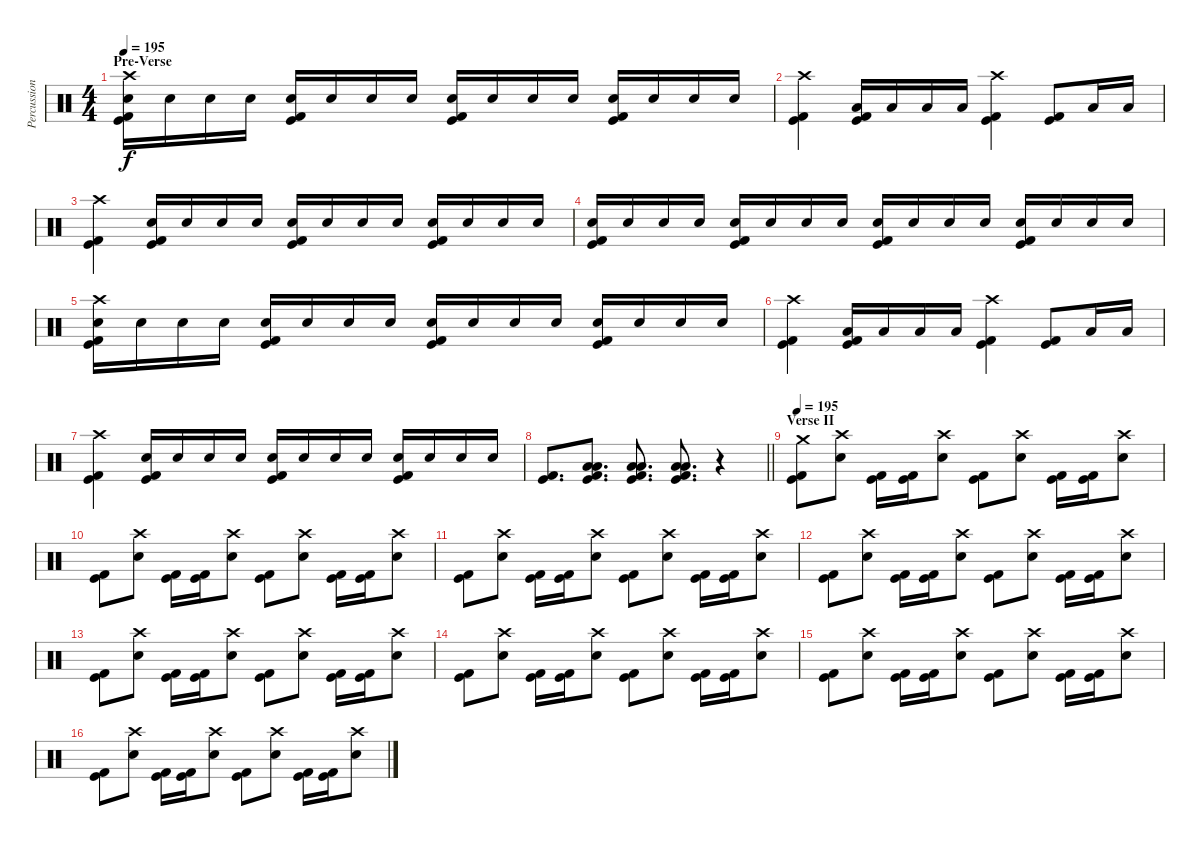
\track ("Percussion" "Percussion") {instrument percussion}
\staff {score}
\articulation defaults
\ts (4 4)
\section ("" "Pre-Verse")
\tempo 195
\clef neutral
\ks c
("Crash high (hit)" "Electric Snare (hit)" "Kick (hit)" "Kick (hit) 2").16{dy f} "Electric Snare (hit)".16 "Electric Snare (hit)".16 "Electric Snare (hit)".16 ("Electric Snare (hit)" "Kick (hit)" "Kick (hit) 2").16 "Electric Snare (hit)".16 "Electric Snare (hit)".16 "Electric Snare (hit)".16 ("Electric Snare (hit)" "Kick (hit)" "Kick (hit) 2").16 "Electric Snare (hit)".16 "Electric Snare (hit)".16 "Electric Snare (hit)".16 ("Electric Snare (hit)" "Kick (hit)" "Kick (hit) 2").16 "Electric Snare (hit)".16 "Electric Snare (hit)".16 "Electric Snare (hit)".16 |
("Crash high (hit)" "Kick (hit)" "Kick (hit) 2").4 ("Low Tom (hit)" "Kick (hit)" "Kick (hit) 2").16 "Low Tom (hit)".16 "Low Tom (hit)".16 "Low Tom (hit)".16 ("Crash high (hit)" "Kick (hit)" "Kick (hit) 2").4 ("Kick (hit)" "Kick (hit) 2").8 "Low Tom (hit)".16 "Low Tom (hit)".16 |
("Crash high (hit)" "Kick (hit)" "Kick (hit) 2").4 ("Electric Snare (hit)" "Kick (hit)" "Kick (hit) 2").16 "Electric Snare (hit)".16 "Electric Snare (hit)".16 "Electric Snare (hit)".16 ("Electric Snare (hit)" "Kick (hit)" "Kick (hit) 2").16 "Electric Snare (hit)".16 "Electric Snare (hit)".16 "Electric Snare (hit)".16 ("Electric Snare (hit)" "Kick (hit)" "Kick (hit) 2").16 "Electric Snare (hit)".16 "Electric Snare (hit)".16 "Electric Snare (hit)".16 |
("Electric Snare (hit)" "Kick (hit)" "Kick (hit) 2").16 "Electric Snare (hit)".16 "Electric Snare (hit)".16 "Electric Snare (hit)".16 ("Electric Snare (hit)" "Kick (hit)" "Kick (hit) 2").16 "Electric Snare (hit)".16 "Electric Snare (hit)".16 "Electric Snare (hit)".16 ("Electric Snare (hit)" "Kick (hit)" "Kick (hit) 2").16 "Electric Snare (hit)".16 "Electric Snare (hit)".16 "Electric Snare (hit)".16 ("Electric Snare (hit)" "Kick (hit)" "Kick (hit) 2").16 "Electric Snare (hit)".16 "Electric Snare (hit)".16 "Electric Snare (hit)".16 |
("Crash high (hit)" "Electric Snare (hit)" "Kick (hit)" "Kick (hit) 2").16 "Electric Snare (hit)".16 "Electric Snare (hit)".16 "Electric Snare (hit)".16 ("Electric Snare (hit)" "Kick (hit)" "Kick (hit) 2").16 "Electric Snare (hit)".16 "Electric Snare (hit)".16 "Electric Snare (hit)".16 ("Electric Snare (hit)" "Kick (hit)" "Kick (hit) 2").16 "Electric Snare (hit)".16 "Electric Snare (hit)".16 "Electric Snare (hit)".16 ("Electric Snare (hit)" "Kick (hit)" "Kick (hit) 2").16 "Electric Snare (hit)".16 "Electric Snare (hit)".16 "Electric Snare (hit)".16 |
("Crash high (hit)" "Kick (hit)" "Kick (hit) 2").4 ("Low Tom (hit)" "Kick (hit)" "Kick (hit) 2").16 "Low Tom (hit)".16 "Low Tom (hit)".16 "Low Tom (hit)".16 ("Crash high (hit)" "Kick (hit)" "Kick (hit) 2").4 ("Kick (hit)" "Kick (hit) 2").8 "Low Tom (hit)".16 "Low Tom (hit)".16 |
("Crash high (hit)" "Kick (hit)" "Kick (hit) 2").4 ("Electric Snare (hit)" "Kick (hit)" "Kick (hit) 2").16 "Electric Snare (hit)".16 "Electric Snare (hit)".16 "Electric Snare (hit)".16 ("Electric Snare (hit)" "Kick (hit)" "Kick (hit) 2").16 "Electric Snare (hit)".16 "Electric Snare (hit)".16 "Electric Snare (hit)".16 ("Electric Snare (hit)" "Kick (hit)" "Kick (hit) 2").16 "Electric Snare (hit)".16 "Electric Snare (hit)".16 "Electric Snare (hit)".16 |
\barLineRight lightlight
("Kick (hit)" "Kick (hit) 2").8{d} ("Low Tom (hit)" "Low Floor Tom (hit)" "Kick (hit)" "Kick (hit) 2").8{d} ("Low Tom (hit)" "Low Floor Tom (hit)" "Kick (hit)" "Kick (hit) 2").8{d} ("Low Tom (hit)" "Low Floor Tom (hit)" "Kick (hit)" "Kick (hit) 2").8{d} r.4 |
\section ("" "Verse II")
\tempo 197
\tempo 195
("Crash medium (hit)" "Kick (hit)" "Kick (hit) 2").8 ("Crash high (hit)" "Electric Snare (hit)").8 ("Kick (hit)" "Kick (hit) 2").16 ("Kick (hit)" "Kick (hit) 2").16 ("Crash high (hit)" "Electric Snare (hit)").8 ("Kick (hit)" "Kick (hit) 2").8 ("Crash high (hit)" "Electric Snare (hit)").8 ("Kick (hit)" "Kick (hit) 2").16 ("Kick (hit)" "Kick (hit) 2").16 ("Crash high (hit)" "Electric Snare (hit)").8 |
("Kick (hit)" "Kick (hit) 2").8 ("Crash high (hit)" "Electric Snare (hit)").8 ("Kick (hit)" "Kick (hit) 2").16 ("Kick (hit)" "Kick (hit) 2").16 ("Crash high (hit)" "Electric Snare (hit)").8 ("Kick (hit)" "Kick (hit) 2").8 ("Crash high (hit)" "Electric Snare (hit)").8 ("Kick (hit)" "Kick (hit) 2").16 ("Kick (hit)" "Kick (hit) 2").16 ("Crash high (hit)" "Electric Snare (hit)").8 |
("Kick (hit)" "Kick (hit) 2").8 ("Crash high (hit)" "Electric Snare (hit)").8 ("Kick (hit)" "Kick (hit) 2").16 ("Kick (hit)" "Kick (hit) 2").16 ("Crash high (hit)" "Electric Snare (hit)").8 ("Kick (hit)" "Kick (hit) 2").8 ("Crash high (hit)" "Electric Snare (hit)").8 ("Kick (hit)" "Kick (hit) 2").16 ("Kick (hit)" "Kick (hit) 2").16 ("Crash high (hit)" "Electric Snare (hit)").8 |
("Kick (hit)" "Kick (hit) 2").8 ("Crash high (hit)" "Electric Snare (hit)").8 ("Kick (hit)" "Kick (hit) 2").16 ("Kick (hit)" "Kick (hit) 2").16 ("Crash high (hit)" "Electric Snare (hit)").8 ("Kick (hit)" "Kick (hit) 2").8 ("Crash high (hit)" "Electric Snare (hit)").8 ("Kick (hit)" "Kick (hit) 2").16 ("Kick (hit)" "Kick (hit) 2").16 ("Crash high (hit)" "Electric Snare (hit)").8 |
("Kick (hit)" "Kick (hit) 2").8 ("Crash high (hit)" "Electric Snare (hit)").8 ("Kick (hit)" "Kick (hit) 2").16 ("Kick (hit)" "Kick (hit) 2").16 ("Crash high (hit)" "Electric Snare (hit)").8 ("Kick (hit)" "Kick (hit) 2").8 ("Crash high (hit)" "Electric Snare (hit)").8 ("Kick (hit)" "Kick (hit) 2").16 ("Kick (hit)" "Kick (hit) 2").16 ("Crash high (hit)" "Electric Snare (hit)").8 |
("Kick (hit)" "Kick (hit) 2").8 ("Crash high (hit)" "Electric Snare (hit)").8 ("Kick (hit)" "Kick (hit) 2").16 ("Kick (hit)" "Kick (hit) 2").16 ("Crash high (hit)" "Electric Snare (hit)").8 ("Kick (hit)" "Kick (hit) 2").8 ("Crash high (hit)" "Electric Snare (hit)").8 ("Kick (hit)" "Kick (hit) 2").16 ("Kick (hit)" "Kick (hit) 2").16 ("Crash high (hit)" "Electric Snare (hit)").8 |
("Kick (hit)" "Kick (hit) 2").8 ("Crash high (hit)" "Electric Snare (hit)").8 ("Kick (hit)" "Kick (hit) 2").16 ("Kick (hit)" "Kick (hit) 2").16 ("Crash high (hit)" "Electric Snare (hit)").8 ("Kick (hit)" "Kick (hit) 2").8 ("Crash high (hit)" "Electric Snare (hit)").8 ("Kick (hit)" "Kick (hit) 2").16 ("Kick (hit)" "Kick (hit) 2").16 ("Crash high (hit)" "Electric Snare (hit)").8 |
("Kick (hit)" "Kick (hit) 2").8 ("Crash high (hit)" "Electric Snare (hit)").8 ("Kick (hit)" "Kick (hit) 2").16 ("Kick (hit)" "Kick (hit) 2").16 ("Crash high (hit)" "Electric Snare (hit)").8 ("Kick (hit)" "Kick (hit) 2").8 ("Crash high (hit)" "Electric Snare (hit)").8 ("Kick (hit)" "Kick (hit) 2").16 ("Kick (hit)" "Kick (hit) 2").16 ("Crash high (hit)" "Electric Snare (hit)").8
